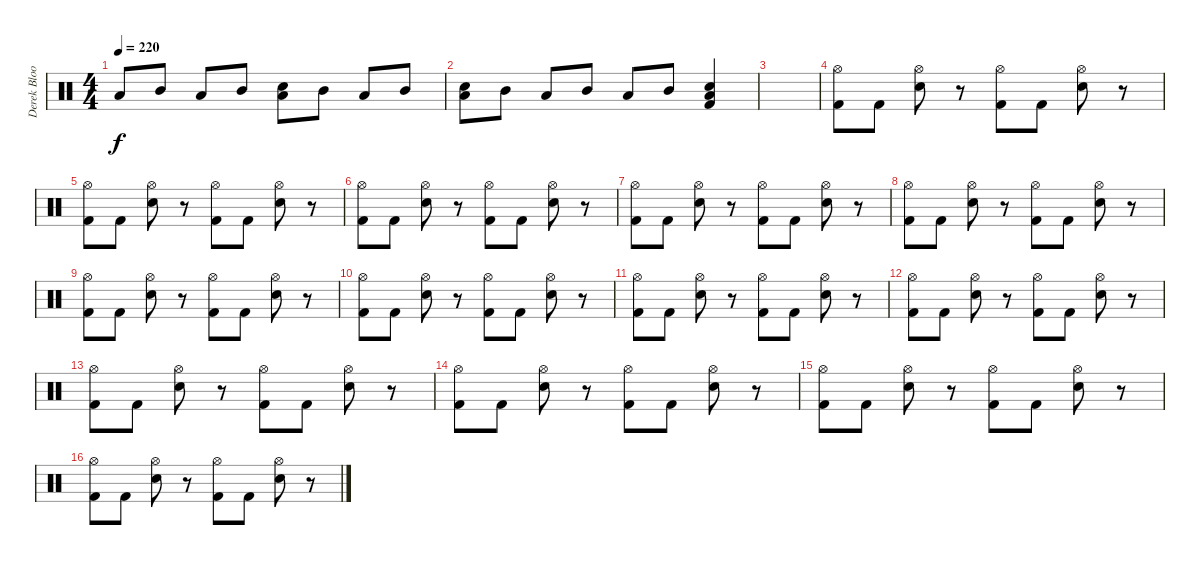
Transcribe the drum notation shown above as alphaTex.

\track ("Derek Bloom - Drums" "Derek Bloo") {instrument percussion}
\staff {score}
\articulation defaults
\ts (4 4)
\tempo 220
\clef neutral
\ks c "Low Tom (hit)".8{dy f} "Mid Tom (hit)".8 "Low Tom (hit)".8 "Mid Tom (hit)".8
("Electric Snare (hit)" "Low Tom (hit)").8 "Mid Tom (hit)".8 "Low Tom (hit)".8 "Mid Tom (hit)".8 |
("Electric Snare (hit)" "Low Tom (hit)").8 "Mid Tom (hit)".8 "Low Tom (hit)".8 "Mid Tom (hit)".8 "Low Tom (hit)".8 "Mid Tom (hit)".8 ("Electric Snare (hit)" "Low Tom (hit)" "Kick (hit) 2").4 |
|
("Hi-Hat (open)" "Kick (hit) 2").8 "Kick (hit) 2".8 ("Hi-Hat (open)" "Electric Snare (hit)").8 r.8 ("Hi-Hat (open)" "Kick (hit) 2").8 "Kick (hit) 2".8 ("Hi-Hat (open)" "Electric Snare (hit)").8 r.8 |
("Hi-Hat (open)" "Kick (hit) 2").8 "Kick (hit) 2".8 ("Hi-Hat (open)" "Electric Snare (hit)").8 r.8 ("Hi-Hat (open)" "Kick (hit) 2").8 "Kick (hit) 2".8 ("Hi-Hat (open)" "Electric Snare (hit)").8 r.8 |
("Hi-Hat (open)" "Kick (hit) 2").8 "Kick (hit) 2".8 ("Hi-Hat (open)" "Electric Snare (hit)").8 r.8 ("Hi-Hat (open)" "Kick (hit) 2").8 "Kick (hit) 2".8 ("Hi-Hat (open)" "Electric Snare (hit)").8 r.8 |
("Hi-Hat (open)" "Kick (hit) 2").8 "Kick (hit) 2".8 ("Hi-Hat (open)" "Electric Snare (hit)").8 r.8 ("Hi-Hat (open)" "Kick (hit) 2").8 "Kick (hit) 2".8 ("Hi-Hat (open)" "Electric Snare (hit)").8 r.8 |
("Hi-Hat (open)" "Kick (hit) 2").8 "Kick (hit) 2".8 ("Hi-Hat (open)" "Electric Snare (hit)").8 r.8 ("Hi-Hat (open)" "Kick (hit) 2").8 "Kick (hit) 2".8 ("Hi-Hat (open)" "Electric Snare (hit)").8 r.8 |
("Hi-Hat (open)" "Kick (hit) 2").8 "Kick (hit) 2".8 ("Hi-Hat (open)" "Electric Snare (hit)").8 r.8 ("Hi-Hat (open)" "Kick (hit) 2").8 "Kick (hit) 2".8 ("Hi-Hat (open)" "Electric Snare (hit)").8 r.8 |
("Hi-Hat (open)" "Kick (hit) 2").8 "Kick (hit) 2".8 ("Hi-Hat (open)" "Electric Snare (hit)").8 r.8 ("Hi-Hat (open)" "Kick (hit) 2").8 "Kick (hit) 2".8 ("Hi-Hat (open)" "Electric Snare (hit)").8 r.8 |
("Hi-Hat (open)" "Kick (hit) 2").8 "Kick (hit) 2".8 ("Hi-Hat (open)" "Electric Snare (hit)").8 r.8 ("Hi-Hat (open)" "Kick (hit) 2").8 "Kick (hit) 2".8 ("Hi-Hat (open)" "Electric Snare (hit)").8 r.8 |
("Hi-Hat (open)" "Kick (hit) 2").8 "Kick (hit) 2".8 ("Hi-Hat (open)" "Electric Snare (hit)").8 r.8 ("Hi-Hat (open)" "Kick (hit) 2").8 "Kick (hit) 2".8 ("Hi-Hat (open)" "Electric Snare (hit)").8 r.8 |
("Hi-Hat (open)" "Kick (hit) 2").8 "Kick (hit) 2".8 ("Hi-Hat (open)" "Electric Snare (hit)").8 r.8 ("Hi-Hat (open)" "Kick (hit) 2").8 "Kick (hit) 2".8 ("Hi-Hat (open)" "Electric Snare (hit)").8 r.8 |
("Hi-Hat (open)" "Kick (hit) 2").8 "Kick (hit) 2".8 ("Hi-Hat (open)" "Electric Snare (hit)").8 r.8 ("Hi-Hat (open)" "Kick (hit) 2").8 "Kick (hit) 2".8 ("Hi-Hat (open)" "Electric Snare (hit)").8 r.8 |
("Hi-Hat (open)" "Kick (hit) 2").8 "Kick (hit) 2".8 ("Hi-Hat (open)" "Electric Snare (hit)").8 r.8 ("Hi-Hat (open)" "Kick (hit) 2").8 "Kick (hit) 2".8 ("Hi-Hat (open)" "Electric Snare (hit)").8 r.8 |
("Hi-Hat (open)" "Kick (hit) 2").8 "Kick (hit) 2".8 ("Hi-Hat (open)" "Electric Snare (hit)").8 r.8 ("Hi-Hat (open)" "Kick (hit) 2").8 "Kick (hit) 2".8 ("Hi-Hat (open)" "Electric Snare (hit)").8 r.8
